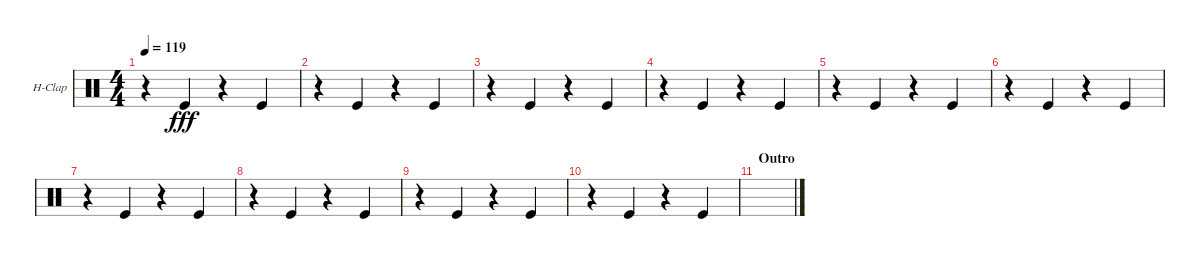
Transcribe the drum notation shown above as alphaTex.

\defaultSystemsLayout 4
\bracketExtendMode groupsimilarinstruments
\firstSystemTrackNameOrientation horizontal
\otherSystemsTrackNameOrientation horizontal
\track ("Hand Clap" "H-Clap") {instrument percussion}
\staff {score}
\articulation defaults
\ts (4 4)
\tempo 119
\clef neutral
\scale
0.333333
\ks c
r.4{dy fff} "Kick (hit)".4 r.4 "Kick (hit)".4 |
\scale
0.333333 r.4 "Kick (hit)".4 r.4 "Kick (hit)".4 |
\scale
0.333333 r.4 "Kick (hit)".4 r.4 "Kick (hit)".4 |
\scale
0.333333 r.4 "Kick (hit)".4 r.4 "Kick (hit)".4 |
\scale
0.333333 r.4 "Kick (hit)".4 r.4 "Kick (hit)".4 |
\scale
0.333333 r.4 "Kick (hit)".4 r.4 "Kick (hit)".4 |
\scale
0.333333 r.4 "Kick (hit)".4 r.4 "Kick (hit)".4 |
\scale
0.333333 r.4 "Kick (hit)".4 r.4 "Kick (hit)".4 |
\scale
0.333333 r.4 "Kick (hit)".4 r.4 "Kick (hit)".4 |
\scale
0.333333 r.4 "Kick (hit)".4 r.4 "Kick (hit)".4 |
\section ("" "Outro")
\scale
0.333333 |
\scale
0.333333 |
\scale
0.333333 |
\scale
0.333333 |
\scale
0.333333 |
\scale
0.333333
